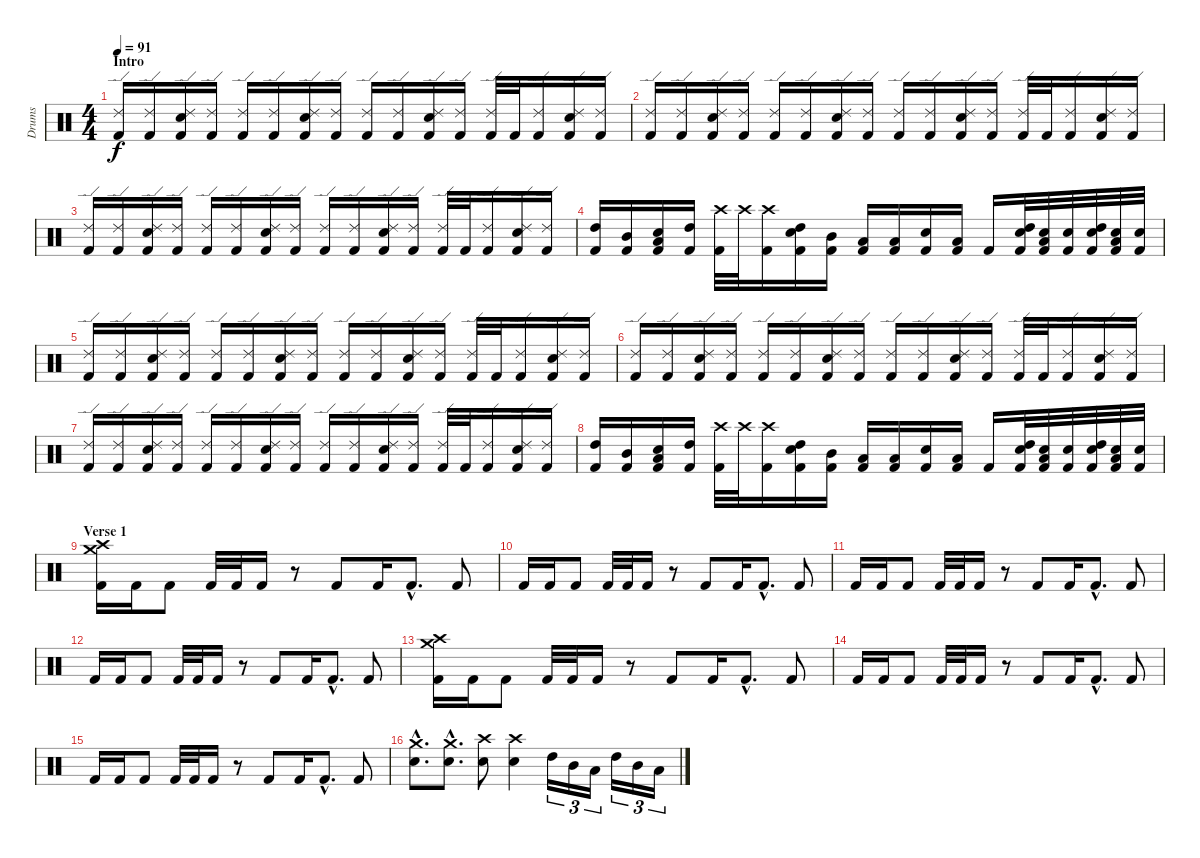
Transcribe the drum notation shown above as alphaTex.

\track ("Drums" "Drums") {instrument percussion}
\staff {score}
\articulation defaults
\ts (4 4)
\section ("" "Intro")
\tempo 91
\clef neutral
\ks c
("Ride (edge) 2" "Kick (hit) 2").16{dy f} ("Ride (edge) 2" "Kick (hit) 2").16 ("Ride (edge) 2" "Snare (hit) 2" "Kick (hit) 2").16 ("Ride (edge) 2" "Kick (hit) 2").16 ("Ride (edge) 2" "Kick (hit) 2").16 ("Ride (edge) 2" "Kick (hit) 2").16 ("Ride (edge) 2" "Snare (hit) 2" "Kick (hit) 2").16 ("Ride (edge) 2" "Kick (hit) 2").16 ("Ride (edge) 2" "Kick (hit) 2").16 ("Ride (edge) 2" "Kick (hit) 2").16 ("Ride (edge) 2" "Snare (hit) 2" "Kick (hit) 2").16 ("Ride (edge) 2" "Kick (hit) 2").16 ("Ride (edge) 2" "Kick (hit) 2").32 "Kick (hit) 2".32 ("Ride (edge) 2" "Kick (hit) 2").16 ("Ride (edge) 2" "Snare (hit) 2" "Kick (hit) 2").16 ("Ride (edge) 2" "Kick (hit) 2").16 |
("Ride (edge) 2" "Kick (hit) 2").16 ("Ride (edge) 2" "Kick (hit) 2").16 ("Ride (edge) 2" "Snare (hit) 2" "Kick (hit) 2").16 ("Ride (edge) 2" "Kick (hit) 2").16 ("Ride (edge) 2" "Kick (hit) 2").16 ("Ride (edge) 2" "Kick (hit) 2").16 ("Ride (edge) 2" "Snare (hit) 2" "Kick (hit) 2").16 ("Ride (edge) 2" "Kick (hit) 2").16 ("Ride (edge) 2" "Kick (hit) 2").16 ("Ride (edge) 2" "Kick (hit) 2").16 ("Ride (edge) 2" "Snare (hit) 2" "Kick (hit) 2").16 ("Ride (edge) 2" "Kick (hit) 2").16 ("Ride (edge) 2" "Kick (hit) 2").32 "Kick (hit) 2".32 ("Ride (edge) 2" "Kick (hit) 2").16 ("Ride (edge) 2" "Snare (hit) 2" "Kick (hit) 2").16 ("Ride (edge) 2" "Kick (hit) 2").16 |
("Ride (edge) 2" "Kick (hit) 2").16 ("Ride (edge) 2" "Kick (hit) 2").16 ("Ride (edge) 2" "Snare (hit) 2" "Kick (hit) 2").16 ("Ride (edge) 2" "Kick (hit) 2").16 ("Ride (edge) 2" "Kick (hit) 2").16 ("Ride (edge) 2" "Kick (hit) 2").16 ("Ride (edge) 2" "Snare (hit) 2" "Kick (hit) 2").16 ("Ride (edge) 2" "Kick (hit) 2").16 ("Ride (edge) 2" "Kick (hit) 2").16 ("Ride (edge) 2" "Kick (hit) 2").16 ("Ride (edge) 2" "Snare (hit) 2" "Kick (hit) 2").16 ("Ride (edge) 2" "Kick (hit) 2").16 ("Ride (edge) 2" "Kick (hit) 2").32 "Kick (hit) 2".32 ("Ride (edge) 2" "Kick (hit) 2").16 ("Ride (edge) 2" "Snare (hit) 2" "Kick (hit) 2").16 ("Ride (edge) 2" "Kick (hit) 2").16 |
("High Tom (hit)" "Kick (hit) 2").16 ("Mid Tom (hit)" "Kick (hit) 2").16 ("Low Tom (hit)" "Snare (hit) 2" "Kick (hit) 2").16 ("High Tom (hit)" "Kick (hit) 2").16 ("Crash high (hit)" "Kick (hit) 2").32 "Crash high (hit)".32 ("Crash high (hit)" "Kick (hit) 2").16 ("High Tom (hit)" "Snare (hit) 2" "Kick (hit) 2").16 ("Mid Tom (hit)" "Kick (hit) 2").16 ("Low Tom (hit)" "Kick (hit) 2").16 ("Low Tom (hit)" "Kick (hit) 2").16 ("Snare (hit) 2" "Kick (hit) 2").16 ("Low Tom (hit)" "Kick (hit) 2").16 "Kick (hit) 2".16 ("High Tom (hit)" "Snare (hit) 2" "Kick (hit) 2").32 ("Low Tom (hit)" "Snare (hit) 2" "Kick (hit) 2").32 ("Snare (hit) 2" "Kick (hit) 2").32 ("High Tom (hit)" "Snare (hit) 2" "Kick (hit) 2").32 ("Low Tom (hit)" "Snare (hit) 2" "Kick (hit) 2").32 ("Snare (hit) 2" "Kick (hit) 2").32 |
("Ride (edge) 2" "Kick (hit) 2").16 ("Ride (edge) 2" "Kick (hit) 2").16 ("Ride (edge) 2" "Snare (hit) 2" "Kick (hit) 2").16 ("Ride (edge) 2" "Kick (hit) 2").16 ("Ride (edge) 2" "Kick (hit) 2").16 ("Ride (edge) 2" "Kick (hit) 2").16 ("Ride (edge) 2" "Snare (hit) 2" "Kick (hit) 2").16 ("Ride (edge) 2" "Kick (hit) 2").16 ("Ride (edge) 2" "Kick (hit) 2").16 ("Ride (edge) 2" "Kick (hit) 2").16 ("Ride (edge) 2" "Snare (hit) 2" "Kick (hit) 2").16 ("Ride (edge) 2" "Kick (hit) 2").16 ("Ride (edge) 2" "Kick (hit) 2").32 "Kick (hit) 2".32 ("Ride (edge) 2" "Kick (hit) 2").16 ("Ride (edge) 2" "Snare (hit) 2" "Kick (hit) 2").16 ("Ride (edge) 2" "Kick (hit) 2").16 |
("Ride (edge) 2" "Kick (hit) 2").16 ("Ride (edge) 2" "Kick (hit) 2").16 ("Ride (edge) 2" "Snare (hit) 2" "Kick (hit) 2").16 ("Ride (edge) 2" "Kick (hit) 2").16 ("Ride (edge) 2" "Kick (hit) 2").16 ("Ride (edge) 2" "Kick (hit) 2").16 ("Ride (edge) 2" "Snare (hit) 2" "Kick (hit) 2").16 ("Ride (edge) 2" "Kick (hit) 2").16 ("Ride (edge) 2" "Kick (hit) 2").16 ("Ride (edge) 2" "Kick (hit) 2").16 ("Ride (edge) 2" "Snare (hit) 2" "Kick (hit) 2").16 ("Ride (edge) 2" "Kick (hit) 2").16 ("Ride (edge) 2" "Kick (hit) 2").32 "Kick (hit) 2".32 ("Ride (edge) 2" "Kick (hit) 2").16 ("Ride (edge) 2" "Snare (hit) 2" "Kick (hit) 2").16 ("Ride (edge) 2" "Kick (hit) 2").16 |
("Ride (edge) 2" "Kick (hit) 2").16 ("Ride (edge) 2" "Kick (hit) 2").16 ("Ride (edge) 2" "Snare (hit) 2" "Kick (hit) 2").16 ("Ride (edge) 2" "Kick (hit) 2").16 ("Ride (edge) 2" "Kick (hit) 2").16 ("Ride (edge) 2" "Kick (hit) 2").16 ("Ride (edge) 2" "Snare (hit) 2" "Kick (hit) 2").16 ("Ride (edge) 2" "Kick (hit) 2").16 ("Ride (edge) 2" "Kick (hit) 2").16 ("Ride (edge) 2" "Kick (hit) 2").16 ("Ride (edge) 2" "Snare (hit) 2" "Kick (hit) 2").16 ("Ride (edge) 2" "Kick (hit) 2").16 ("Ride (edge) 2" "Kick (hit) 2").32 "Kick (hit) 2".32 ("Ride (edge) 2" "Kick (hit) 2").16 ("Ride (edge) 2" "Snare (hit) 2" "Kick (hit) 2").16 ("Ride (edge) 2" "Kick (hit) 2").16 |
("High Tom (hit)" "Kick (hit) 2").16 ("Mid Tom (hit)" "Kick (hit) 2").16 ("Low Tom (hit)" "Snare (hit) 2" "Kick (hit) 2").16 ("High Tom (hit)" "Kick (hit) 2").16 ("Crash high (hit)" "Kick (hit) 2").32 "Crash high (hit)".32 ("Crash high (hit)" "Kick (hit) 2").16 ("High Tom (hit)" "Snare (hit) 2" "Kick (hit) 2").16 ("Mid Tom (hit)" "Kick (hit) 2").16 ("Low Tom (hit)" "Kick (hit) 2").16 ("Low Tom (hit)" "Kick (hit) 2").16 ("Snare (hit) 2" "Kick (hit) 2").16 ("Low Tom (hit)" "Kick (hit) 2").16 "Kick (hit) 2".16 ("High Tom (hit)" "Snare (hit) 2" "Kick (hit) 2").32 ("Low Tom (hit)" "Snare (hit) 2" "Kick (hit) 2").32 ("Snare (hit) 2" "Kick (hit) 2").32 ("High Tom (hit)" "Snare (hit) 2" "Kick (hit) 2").32 ("Low Tom (hit)" "Snare (hit) 2" "Kick (hit) 2").32 ("Snare (hit) 2" "Kick (hit) 2").32 |
\section ("" "Verse 1")
("Crash medium (hit)" "Crash high (hit)" "Kick (hit) 2").16 "Kick (hit) 2".16 "Kick (hit) 2".8 "Kick (hit) 2".32 "Kick (hit) 2".32 "Kick (hit) 2".16 r.8 "Kick (hit) 2".8 "Kick (hit) 2".16 "Kick (hit) 2"{hac}.8{d} "Kick (hit) 2".8 |
"Kick (hit) 2".16 "Kick (hit) 2".16 "Kick (hit) 2".8 "Kick (hit) 2".32 "Kick (hit) 2".32 "Kick (hit) 2".16 r.8 "Kick (hit) 2".8 "Kick (hit) 2".16 "Kick (hit) 2"{hac}.8{d} "Kick (hit) 2".8 |
"Kick (hit) 2".16 "Kick (hit) 2".16 "Kick (hit) 2".8 "Kick (hit) 2".32 "Kick (hit) 2".32 "Kick (hit) 2".16 r.8 "Kick (hit) 2".8 "Kick (hit) 2".16 "Kick (hit) 2"{hac}.8{d} "Kick (hit) 2".8 |
"Kick (hit) 2".16 "Kick (hit) 2".16 "Kick (hit) 2".8 "Kick (hit) 2".32 "Kick (hit) 2".32 "Kick (hit) 2".16 r.8 "Kick (hit) 2".8 "Kick (hit) 2".16 "Kick (hit) 2"{hac}.8{d} "Kick (hit) 2".8 |
("Crash medium (hit)" "Crash high (hit)" "Kick (hit) 2").16 "Kick (hit) 2".16 "Kick (hit) 2".8 "Kick (hit) 2".32 "Kick (hit) 2".32 "Kick (hit) 2".16 r.8 "Kick (hit) 2".8 "Kick (hit) 2".16 "Kick (hit) 2"{hac}.8{d} "Kick (hit) 2".8 |
"Kick (hit) 2".16 "Kick (hit) 2".16 "Kick (hit) 2".8 "Kick (hit) 2".32 "Kick (hit) 2".32 "Kick (hit) 2".16 r.8 "Kick (hit) 2".8 "Kick (hit) 2".16 "Kick (hit) 2"{hac}.8{d} "Kick (hit) 2".8 |
"Kick (hit) 2".16 "Kick (hit) 2".16 "Kick (hit) 2".8 "Kick (hit) 2".32 "Kick (hit) 2".32 "Kick (hit) 2".16 r.8 "Kick (hit) 2".8 "Kick (hit) 2".16 "Kick (hit) 2"{hac}.8{d} "Kick (hit) 2".8 |
("Crash medium (hit)"{hac} "Snare (hit) 2"{hac}).8{d} ("Crash medium (hit)"{hac} "Snare (hit) 2"{hac}).8{d} ("Crash high (hit)" "Snare (hit) 2").8 ("Crash high (hit)" "Snare (hit) 2").4 "High Tom (hit)".16{tu (3 2)} "Mid Tom (hit)".16{tu (3 2)} "Low Tom (hit)".16{tu (3 2)} "High Tom (hit)".16{tu (3 2)} "Mid Tom (hit)".16{tu (3 2)} "Low Tom (hit)".16{tu (3 2)}
